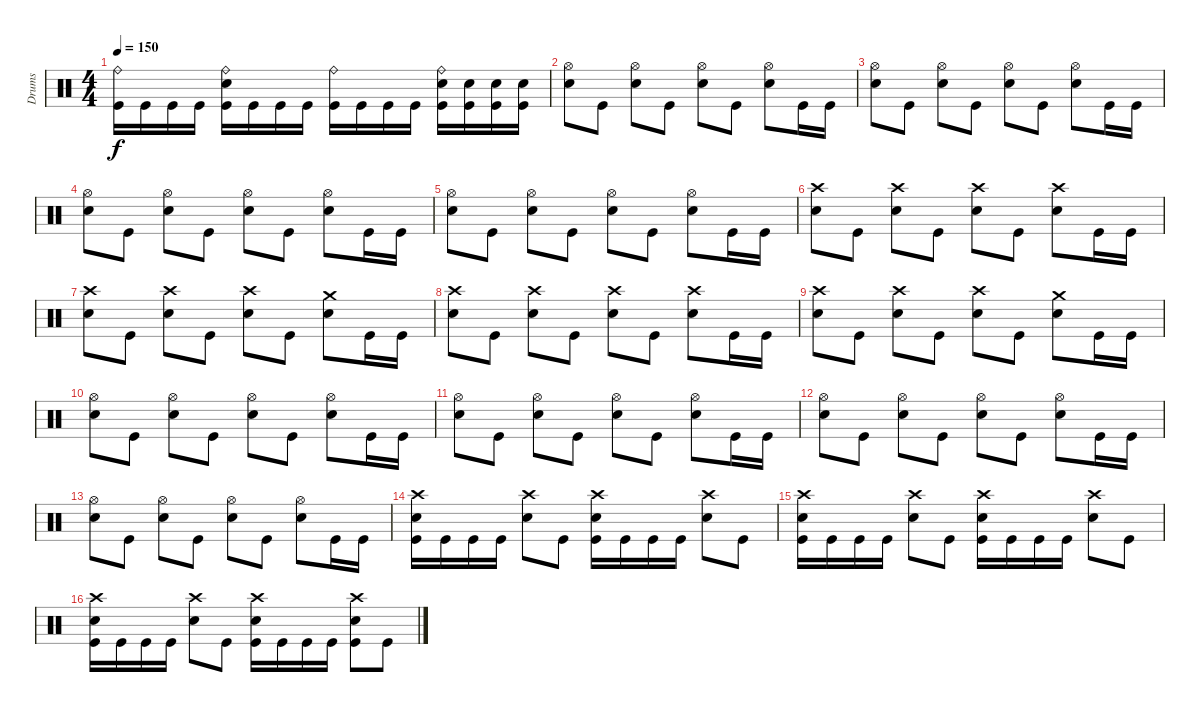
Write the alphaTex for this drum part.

\track ("Drums" "Drums") {instrument percussion}
\staff {score}
\articulation defaults
\ts (4 4)
\tempo 150
\clef neutral
\ks c
("Ride (bell)" "Kick (hit)").16{dy f} "Kick (hit)".16 "Kick (hit)".16 "Kick (hit)".16 ("Ride (bell)" "Electric Snare (hit)" "Kick (hit)").16 "Kick (hit)".16 "Kick (hit)".16 "Kick (hit)".16 ("Ride (bell)" "Kick (hit)").16 "Kick (hit)".16 "Kick (hit)".16 "Kick (hit)".16 ("Ride (bell)" "Electric Snare (hit)" "Kick (hit)").16 ("Electric Snare (hit)" "Kick (hit)").16 ("Electric Snare (hit)" "Kick (hit)").16 ("Electric Snare (hit)" "Kick (hit)").16 |
("Hi-Hat (open)" "Electric Snare (hit)").8 "Kick (hit)".8 ("Hi-Hat (open)" "Electric Snare (hit)").8 "Kick (hit)".8 ("Hi-Hat (open)" "Electric Snare (hit)").8 "Kick (hit)".8 ("Hi-Hat (open)" "Electric Snare (hit)").8 "Kick (hit)".16 "Kick (hit)".16 |
("Hi-Hat (open)" "Electric Snare (hit)").8 "Kick (hit)".8 ("Hi-Hat (open)" "Electric Snare (hit)").8 "Kick (hit)".8 ("Hi-Hat (open)" "Electric Snare (hit)").8 "Kick (hit)".8 ("Hi-Hat (open)" "Electric Snare (hit)").8 "Kick (hit)".16 "Kick (hit)".16 |
("Hi-Hat (open)" "Electric Snare (hit)").8 "Kick (hit)".8 ("Hi-Hat (open)" "Electric Snare (hit)").8 "Kick (hit)".8 ("Hi-Hat (open)" "Electric Snare (hit)").8 "Kick (hit)".8 ("Hi-Hat (open)" "Electric Snare (hit)").8 "Kick (hit)".16 "Kick (hit)".16 |
("Hi-Hat (open)" "Electric Snare (hit)").8 "Kick (hit)".8 ("Hi-Hat (open)" "Electric Snare (hit)").8 "Kick (hit)".8 ("Hi-Hat (open)" "Electric Snare (hit)").8 "Kick (hit)".8 ("Hi-Hat (open)" "Electric Snare (hit)").8 "Kick (hit)".16 "Kick (hit)".16 |
("Crash high (hit)" "Electric Snare (hit)").8 "Kick (hit)".8 ("Crash high (hit)" "Electric Snare (hit)").8 "Kick (hit)".8 ("Crash high (hit)" "Electric Snare (hit)").8 "Kick (hit)".8 ("Crash high (hit)" "Electric Snare (hit)").8 "Kick (hit)".16 "Kick (hit)".16 |
("Crash high (hit)" "Electric Snare (hit)").8 "Kick (hit)".8 ("Crash high (hit)" "Electric Snare (hit)").8 "Kick (hit)".8 ("Crash high (hit)" "Electric Snare (hit)").8 "Kick (hit)".8 ("Crash medium (hit)" "Electric Snare (hit)").8 "Kick (hit)".16 "Kick (hit)".16 |
("Crash high (hit)" "Electric Snare (hit)").8 "Kick (hit)".8 ("Crash high (hit)" "Electric Snare (hit)").8 "Kick (hit)".8 ("Crash high (hit)" "Electric Snare (hit)").8 "Kick (hit)".8 ("Crash high (hit)" "Electric Snare (hit)").8 "Kick (hit)".16 "Kick (hit)".16 |
("Crash high (hit)" "Electric Snare (hit)").8 "Kick (hit)".8 ("Crash high (hit)" "Electric Snare (hit)").8 "Kick (hit)".8 ("Crash high (hit)" "Electric Snare (hit)").8 "Kick (hit)".8 ("Crash medium (hit)" "Electric Snare (hit)").8 "Kick (hit)".16 "Kick (hit)".16 |
("Hi-Hat (open)" "Electric Snare (hit)").8 "Kick (hit)".8 ("Hi-Hat (open)" "Electric Snare (hit)").8 "Kick (hit)".8 ("Hi-Hat (open)" "Electric Snare (hit)").8 "Kick (hit)".8 ("Hi-Hat (open)" "Electric Snare (hit)").8 "Kick (hit)".16 "Kick (hit)".16 |
("Hi-Hat (open)" "Electric Snare (hit)").8 "Kick (hit)".8 ("Hi-Hat (open)" "Electric Snare (hit)").8 "Kick (hit)".8 ("Hi-Hat (open)" "Electric Snare (hit)").8 "Kick (hit)".8 ("Hi-Hat (open)" "Electric Snare (hit)").8 "Kick (hit)".16 "Kick (hit)".16 |
("Hi-Hat (open)" "Electric Snare (hit)").8 "Kick (hit)".8 ("Hi-Hat (open)" "Electric Snare (hit)").8 "Kick (hit)".8 ("Hi-Hat (open)" "Electric Snare (hit)").8 "Kick (hit)".8 ("Hi-Hat (open)" "Electric Snare (hit)").8 "Kick (hit)".16 "Kick (hit)".16 |
("Hi-Hat (open)" "Electric Snare (hit)").8 "Kick (hit)".8 ("Hi-Hat (open)" "Electric Snare (hit)").8 "Kick (hit)".8 ("Hi-Hat (open)" "Electric Snare (hit)").8 "Kick (hit)".8 ("Hi-Hat (open)" "Electric Snare (hit)").8 "Kick (hit)".16 "Kick (hit)".16 |
("Crash high (hit)" "Electric Snare (hit)" "Kick (hit)").16 "Kick (hit)".16 "Kick (hit)".16 "Kick (hit)".16 ("Crash high (hit)" "Electric Snare (hit)").8 "Kick (hit)".8 ("Crash high (hit)" "Electric Snare (hit)" "Kick (hit)").16 "Kick (hit)".16 "Kick (hit)".16 "Kick (hit)".16 ("Crash high (hit)" "Electric Snare (hit)").8 "Kick (hit)".8 |
("Crash high (hit)" "Electric Snare (hit)" "Kick (hit)").16 "Kick (hit)".16 "Kick (hit)".16 "Kick (hit)".16 ("Crash high (hit)" "Electric Snare (hit)").8 "Kick (hit)".8 ("Crash high (hit)" "Electric Snare (hit)" "Kick (hit)").16 "Kick (hit)".16 "Kick (hit)".16 "Kick (hit)".16 ("Crash high (hit)" "Electric Snare (hit)").8 "Kick (hit)".8 |
("Crash high (hit)" "Electric Snare (hit)" "Kick (hit)").16 "Kick (hit)".16 "Kick (hit)".16 "Kick (hit)".16 ("Crash high (hit)" "Electric Snare (hit)").8 "Kick (hit)".8 ("Crash high (hit)" "Electric Snare (hit)" "Kick (hit)").16 "Kick (hit)".16 "Kick (hit)".16 "Kick (hit)".16 ("Crash high (hit)" "Electric Snare (hit)" "Kick (hit)").8 "Kick (hit)".8
